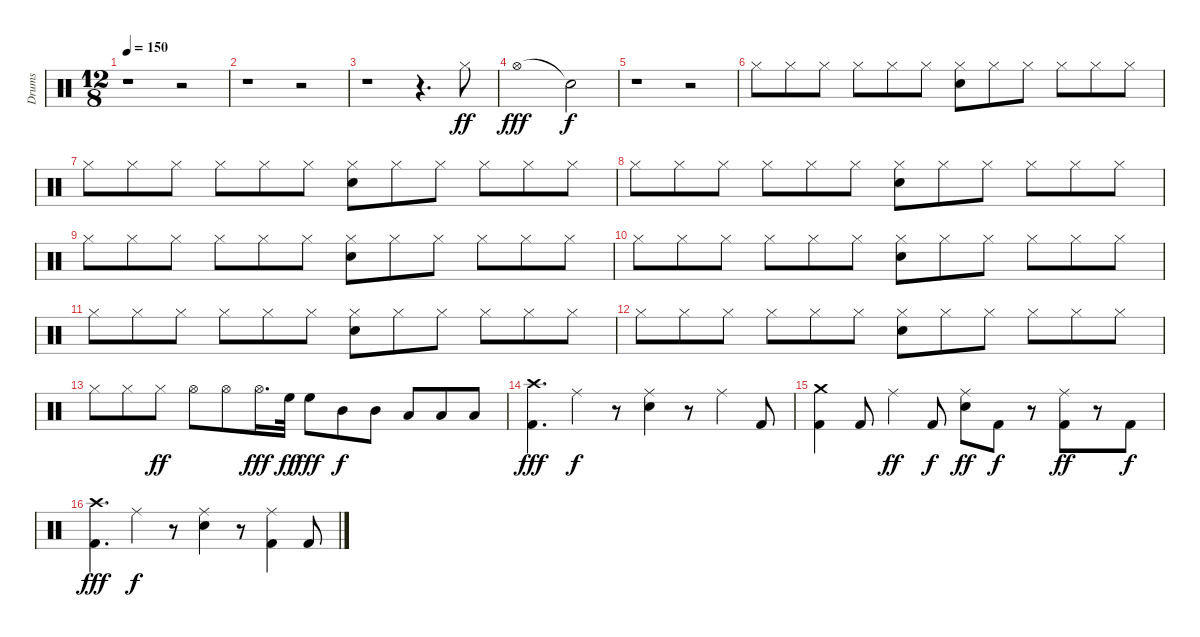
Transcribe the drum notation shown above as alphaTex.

\track ("Drums" "Drums") {instrument percussion}
\staff {score}
\articulation defaults
\ts (12 8)
\tempo 150
\clef neutral
\ks c
r.1{dy f} r.2 |
r.1 r.2 |
r.1 r.4{d} "Hi-Hat (closed)".8{dy ff} |
"Hi-Hat (open)".1{dy fff} "Snare (hit)"{t}.2{dy f} |
r.1 r.2 |
"Hi-Hat (closed)".8 "Hi-Hat (closed)".8 "Hi-Hat (closed)".8 "Hi-Hat (closed)".8 "Hi-Hat (closed)".8 "Hi-Hat (closed)".8 ("Hi-Hat (closed)" "Snare (hit) 2").8 "Hi-Hat (closed)".8 "Hi-Hat (closed)".8 "Hi-Hat (closed)".8 "Hi-Hat (closed)".8 "Hi-Hat (closed)".8 |
"Hi-Hat (closed)".8 "Hi-Hat (closed)".8 "Hi-Hat (closed)".8 "Hi-Hat (closed)".8 "Hi-Hat (closed)".8 "Hi-Hat (closed)".8 ("Hi-Hat (closed)" "Snare (hit) 2").8 "Hi-Hat (closed)".8 "Hi-Hat (closed)".8 "Hi-Hat (closed)".8 "Hi-Hat (closed)".8 "Hi-Hat (closed)".8 |
"Hi-Hat (closed)".8 "Hi-Hat (closed)".8 "Hi-Hat (closed)".8 "Hi-Hat (closed)".8 "Hi-Hat (closed)".8 "Hi-Hat (closed)".8 ("Hi-Hat (closed)" "Snare (hit) 2").8 "Hi-Hat (closed)".8 "Hi-Hat (closed)".8 "Hi-Hat (closed)".8 "Hi-Hat (closed)".8 "Hi-Hat (closed)".8 |
"Hi-Hat (closed)".8 "Hi-Hat (closed)".8 "Hi-Hat (closed)".8 "Hi-Hat (closed)".8 "Hi-Hat (closed)".8 "Hi-Hat (closed)".8 ("Hi-Hat (closed)" "Snare (hit) 2").8 "Hi-Hat (closed)".8 "Hi-Hat (closed)".8 "Hi-Hat (closed)".8 "Hi-Hat (closed)".8 "Hi-Hat (closed)".8 |
"Hi-Hat (closed)".8 "Hi-Hat (closed)".8 "Hi-Hat (closed)".8 "Hi-Hat (closed)".8 "Hi-Hat (closed)".8 "Hi-Hat (closed)".8 ("Hi-Hat (closed)" "Snare (hit) 2").8 "Hi-Hat (closed)".8 "Hi-Hat (closed)".8 "Hi-Hat (closed)".8 "Hi-Hat (closed)".8 "Hi-Hat (closed)".8 |
"Hi-Hat (closed)".8 "Hi-Hat (closed)".8 "Hi-Hat (closed)".8 "Hi-Hat (closed)".8 "Hi-Hat (closed)".8 "Hi-Hat (closed)".8 ("Hi-Hat (closed)" "Snare (hit) 2").8 "Hi-Hat (closed)".8 "Hi-Hat (closed)".8 "Hi-Hat (closed)".8 "Hi-Hat (closed)".8 "Hi-Hat (closed)".8 |
"Hi-Hat (closed)".8 "Hi-Hat (closed)".8 "Hi-Hat (closed)".8 "Hi-Hat (closed)".8 "Hi-Hat (closed)".8 "Hi-Hat (closed)".8 ("Hi-Hat (closed)" "Snare (hit) 2").8 "Hi-Hat (closed)".8 "Hi-Hat (closed)".8 "Hi-Hat (closed)".8 "Hi-Hat (closed)".8 "Hi-Hat (closed)".8 |
"Hi-Hat (closed)".8 "Hi-Hat (closed)".8 "Hi-Hat (closed)".8{dy ff} "Hi-Hat (open)".8 "Hi-Hat (open)".8 "Hi-Hat (open)".16{d dy fff} "High Floor Tom (hit)".32{dy ff} "High Floor Tom (hit)".8{dy fff} "Mid Tom (hit)".8{dy f} "Mid Tom (hit)".8 "Low Tom (hit)".8 "Low Tom (hit)".8 "Low Floor Tom (hit)".8 |
("Crash high (hit)" "Kick (hit) 2").4{d dy fff} "Ride (middle)".4{dy f} r.8 ("Ride (middle)" "Snare (hit) 2").4 r.8 "Ride (middle)".4 "Kick (hit) 2".8 |
("Crash medium (hit)" "Kick (hit) 2").4 "Kick (hit) 2".8 "Ride (middle)".4{dy ff} "Kick (hit) 2".8{dy f} ("Ride (middle)" "Snare (hit) 2").8{dy ff} "Kick (hit) 2".8{dy f} r.8 ("Ride (middle)" "Kick (hit) 2").8{dy ff} r.8 "Kick (hit) 2".8{dy f} |
("Crash high (hit)" "Kick (hit) 2").4{d dy fff} "Ride (middle)".4{dy f} r.8 ("Ride (middle)" "Snare (hit) 2").4 r.8 ("Ride (middle)" "Kick (hit) 2").4 "Kick (hit) 2".8
